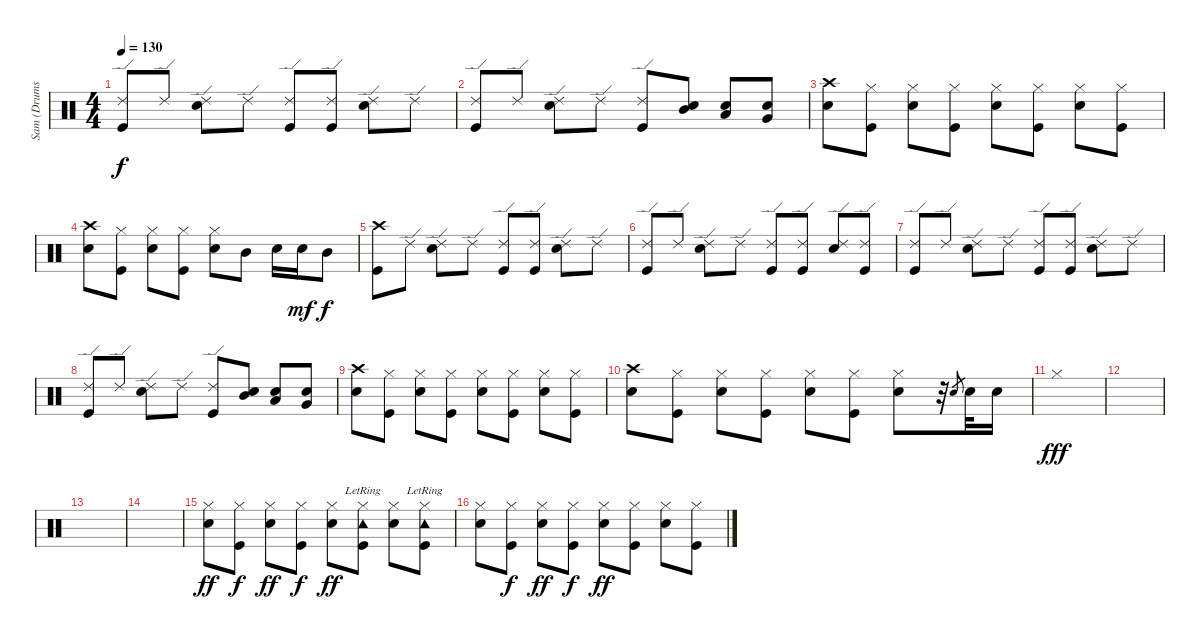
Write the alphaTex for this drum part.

\track ("Sam (Drums)" "Sam (Drums") {instrument percussion}
\staff {score}
\articulation defaults
\ts (4 4)
\tempo 130
\clef neutral
\ks c
("Ride (edge) 2" "Kick (hit)").8{dy f} "Ride (edge) 2".8 ("Ride (edge) 2" "Snare (hit) 2").8 "Ride (edge) 2".8 ("Ride (edge) 2" "Kick (hit)").8 ("Ride (edge) 2" "Kick (hit)").8 ("Ride (edge) 2" "Snare (hit) 2").8 "Ride (edge) 2".8 |
("Ride (edge) 2" "Kick (hit)").8 "Ride (edge) 2".8 ("Ride (edge) 2" "Snare (hit) 2").8 "Ride (edge) 2".8 ("Ride (edge) 2" "Kick (hit)").8 ("Mid Tom (hit)" "Snare (hit) 2").8 ("Low Tom (hit)" "Snare (hit) 2").8 ("Very Low Tom (hit)" "Snare (hit) 2").8 |
("Crash high (hit)" "Snare (hit) 2").8 ("Hi-Hat (closed)" "Kick (hit)").8 ("Hi-Hat (closed)" "Snare (hit) 2").8 ("Hi-Hat (closed)" "Kick (hit)").8 ("Hi-Hat (closed)" "Snare (hit) 2").8 ("Hi-Hat (closed)" "Kick (hit)").8 ("Hi-Hat (closed)" "Snare (hit) 2").8 ("Hi-Hat (closed)" "Kick (hit)").8 |
("Crash high (hit)" "Snare (hit) 2").8 ("Hi-Hat (closed)" "Kick (hit)").8 ("Hi-Hat (closed)" "Snare (hit) 2").8 ("Hi-Hat (closed)" "Kick (hit)").8 ("Hi-Hat (closed)" "Snare (hit) 2").8 "Mid Tom (hit)".8 "Snare (hit) 2".16 "Snare (hit) 2".16{dy mf} "Mid Tom (hit)".8{dy f} |
("Crash high (hit)" "Kick (hit)").8 "Ride (edge) 2".8 ("Ride (edge) 2" "Snare (hit) 2").8 "Ride (edge) 2".8 ("Ride (edge) 2" "Kick (hit)").8 ("Ride (edge) 2" "Kick (hit)").8 ("Ride (edge) 2" "Snare (hit) 2").8 "Ride (edge) 2".8 |
("Ride (edge) 2" "Kick (hit)").8 "Ride (edge) 2".8 ("Ride (edge) 2" "Snare (hit) 2").8 "Ride (edge) 2".8 ("Ride (edge) 2" "Kick (hit)").8 ("Ride (edge) 2" "Kick (hit)").8 ("Ride (edge) 2" "Snare (hit) 2").8 ("Ride (edge) 2" "Kick (hit)").8 |
("Ride (edge) 2" "Kick (hit)").8 "Ride (edge) 2".8 ("Ride (edge) 2" "Snare (hit) 2").8 "Ride (edge) 2".8 ("Ride (edge) 2" "Kick (hit)").8 ("Ride (edge) 2" "Kick (hit)").8 ("Ride (edge) 2" "Snare (hit) 2").8 "Ride (edge) 2".8 |
("Ride (edge) 2" "Kick (hit)").8 "Ride (edge) 2".8 ("Ride (edge) 2" "Snare (hit) 2").8 "Ride (edge) 2".8 ("Ride (edge) 2" "Kick (hit)").8 ("Mid Tom (hit)" "Snare (hit) 2").8 ("Low Tom (hit)" "Snare (hit) 2").8 ("Very Low Tom (hit)" "Snare (hit) 2").8 |
("Crash high (hit)" "Snare (hit) 2").8 ("Hi-Hat (closed)" "Kick (hit)").8 ("Hi-Hat (closed)" "Snare (hit) 2").8 ("Hi-Hat (closed)" "Kick (hit)").8 ("Hi-Hat (closed)" "Snare (hit) 2").8 ("Hi-Hat (closed)" "Kick (hit)").8 ("Hi-Hat (closed)" "Snare (hit) 2").8 ("Hi-Hat (closed)" "Kick (hit)").8 |
("Crash high (hit)" "Snare (hit) 2").8 ("Hi-Hat (closed)" "Kick (hit)").8 ("Hi-Hat (closed)" "Snare (hit) 2").8 ("Hi-Hat (closed)" "Kick (hit)").8 ("Hi-Hat (closed)" "Snare (hit) 2").8 ("Hi-Hat (closed)" "Kick (hit)").8 ("Hi-Hat (closed)" "Snare (hit) 2").8 r.32 "Snare (hit) 2".8{gr} "Snare (hit) 2".32 "Snare (hit) 2".16 |
"Hi-Hat (closed)".1{dy fff} |
|
|
|
("Hi-Hat (closed)" "Snare (hit) 2").8{dy ff} ("Hi-Hat (closed)" "Kick (hit)").8{dy f} ("Hi-Hat (closed)" "Snare (hit) 2").8{dy ff} ("Hi-Hat (closed)" "Kick (hit)").8{dy f} ("Hi-Hat (closed)" "Snare (hit) 2").8{dy ff} ("Hi-Hat (closed)" "Tambourine (hit)"{lr} "Kick (hit)").8 ("Hi-Hat (closed)" "Snare (hit) 2").8 ("Hi-Hat (closed)" "Tambourine (hit)"{lr} "Kick (hit)").8 |
("Hi-Hat (closed)" "Snare (hit) 2").8 ("Hi-Hat (closed)" "Kick (hit)").8{dy f} ("Hi-Hat (closed)" "Snare (hit) 2").8{dy ff} ("Hi-Hat (closed)" "Kick (hit)").8{dy f} ("Hi-Hat (closed)" "Snare (hit) 2").8{dy ff} ("Hi-Hat (closed)" "Kick (hit)").8 ("Hi-Hat (closed)" "Snare (hit) 2").8 ("Hi-Hat (closed)" "Kick (hit)").8
